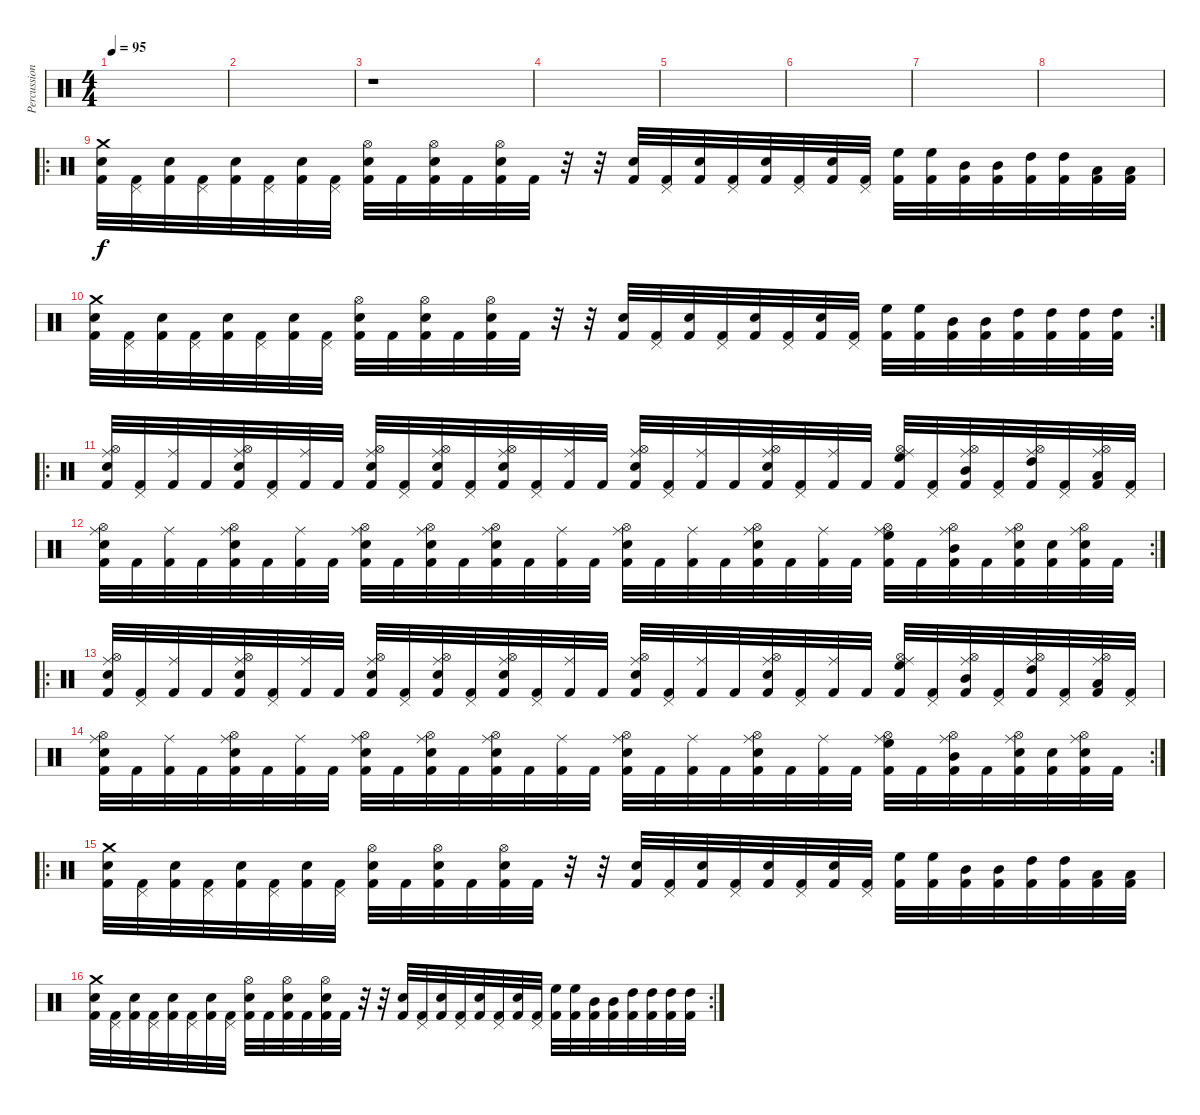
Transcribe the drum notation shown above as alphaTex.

\track ("Percussion" "Percussion") {instrument percussion}
\staff {score}
\articulation defaults
\ts (4 4)
\tempo 95
\clef neutral
\ks c
|
|
r.1 |
|
|
|
|
|
\ro
("Crash medium (hit)" "Electric Snare (hit)" "Kick (hit) 2").32 ("Pedal Hi-Hat (hit)" "Kick (hit) 2").32 ("Electric Snare (hit)" "Kick (hit) 2").32 ("Pedal Hi-Hat (hit)" "Kick (hit) 2").32 ("Electric Snare (hit)" "Kick (hit) 2").32 ("Pedal Hi-Hat (hit)" "Kick (hit) 2").32 ("Electric Snare (hit)" "Kick (hit) 2").32 ("Pedal Hi-Hat (hit)" "Kick (hit) 2").32 ("Electric Snare (hit)" "Hi-Hat (open)" "Kick (hit) 2").32 "Kick (hit) 2".32 ("Electric Snare (hit)" "Hi-Hat (open)" "Kick (hit) 2").32 "Kick (hit) 2".32 ("Electric Snare (hit)" "Hi-Hat (open)" "Kick (hit) 2").32 "Kick (hit) 2".32 r.32 r.32 ("Electric Snare (hit)" "Kick (hit) 2").32 ("Pedal Hi-Hat (hit)" "Kick (hit) 2").32 ("Electric Snare (hit)" "Kick (hit) 2").32 ("Pedal Hi-Hat (hit)" "Kick (hit) 2").32 ("Electric Snare (hit)" "Kick (hit) 2").32 ("Pedal Hi-Hat (hit)" "Kick (hit) 2").32 ("Electric Snare (hit)" "Kick (hit) 2").32 ("Pedal Hi-Hat (hit)" "Kick (hit) 2").32 ("High Floor Tom (hit)" "Kick (hit) 2").32 ("High Floor Tom (hit)" "Kick (hit) 2").32 ("Mid Tom (hit)" "Kick (hit) 2").32 ("Mid Tom (hit)" "Kick (hit) 2").32 ("High Tom (hit)" "Kick (hit) 2").32 ("High Tom (hit)" "Kick (hit) 2").32 ("Low Tom (hit)" "Kick (hit) 2").32 ("Low Tom (hit)" "Kick (hit) 2").32 |
\rc 2
("Crash medium (hit)" "Electric Snare (hit)" "Kick (hit) 2").32 ("Pedal Hi-Hat (hit)" "Kick (hit) 2").32 ("Electric Snare (hit)" "Kick (hit) 2").32 ("Pedal Hi-Hat (hit)" "Kick (hit) 2").32 ("Electric Snare (hit)" "Kick (hit) 2").32 ("Pedal Hi-Hat (hit)" "Kick (hit) 2").32 ("Electric Snare (hit)" "Kick (hit) 2").32 ("Pedal Hi-Hat (hit)" "Kick (hit) 2").32 ("Electric Snare (hit)" "Hi-Hat (open)" "Kick (hit) 2").32 "Kick (hit) 2".32 ("Electric Snare (hit)" "Hi-Hat (open)" "Kick (hit) 2").32 "Kick (hit) 2".32 ("Electric Snare (hit)" "Hi-Hat (open)" "Kick (hit) 2").32 "Kick (hit) 2".32 r.32 r.32 ("Electric Snare (hit)" "Kick (hit) 2").32 ("Pedal Hi-Hat (hit)" "Kick (hit) 2").32 ("Electric Snare (hit)" "Kick (hit) 2").32 ("Pedal Hi-Hat (hit)" "Kick (hit) 2").32 ("Electric Snare (hit)" "Kick (hit) 2").32 ("Pedal Hi-Hat (hit)" "Kick (hit) 2").32 ("Electric Snare (hit)" "Kick (hit) 2").32 ("Pedal Hi-Hat (hit)" "Kick (hit) 2").32 ("High Floor Tom (hit)" "Kick (hit) 2").32 ("High Floor Tom (hit)" "Kick (hit) 2").32 ("Mid Tom (hit)" "Kick (hit) 2").32 ("Mid Tom (hit)" "Kick (hit) 2").32 ("High Tom (hit)" "Kick (hit) 2").32 ("High Tom (hit)" "Kick (hit) 2").32 ("High Tom (hit)" "Kick (hit) 2").32 ("High Tom (hit)" "Kick (hit) 2").32 |
\ro
("Electric Snare (hit)" "Hi-Hat (open)" "Ride (middle)" "Kick (hit) 2").32 ("Pedal Hi-Hat (hit)" "Kick (hit) 2").32 ("Ride (middle)" "Kick (hit) 2").32 "Kick (hit) 2".32 ("Electric Snare (hit)" "Hi-Hat (open)" "Ride (middle)" "Kick (hit) 2").32 ("Pedal Hi-Hat (hit)" "Kick (hit) 2").32 ("Ride (middle)" "Kick (hit) 2").32 "Kick (hit) 2".32 ("Electric Snare (hit)" "Hi-Hat (open)" "Ride (middle)" "Kick (hit) 2").32 ("Pedal Hi-Hat (hit)" "Kick (hit) 2").32 ("Electric Snare (hit)" "Hi-Hat (open)" "Ride (middle)" "Kick (hit) 2").32 ("Pedal Hi-Hat (hit)" "Kick (hit) 2").32 ("Electric Snare (hit)" "Hi-Hat (open)" "Ride (middle)" "Kick (hit) 2").32 ("Pedal Hi-Hat (hit)" "Kick (hit) 2").32 ("Ride (middle)" "Kick (hit) 2").32 "Kick (hit) 2".32 ("Electric Snare (hit)" "Hi-Hat (open)" "Ride (middle)" "Kick (hit) 2").32 ("Pedal Hi-Hat (hit)" "Kick (hit) 2").32 ("Ride (middle)" "Kick (hit) 2").32 "Kick (hit) 2".32 ("Electric Snare (hit)" "Hi-Hat (open)" "Ride (middle)" "Kick (hit) 2").32 ("Pedal Hi-Hat (hit)" "Kick (hit) 2").32 ("Ride (middle)" "Kick (hit) 2").32 "Kick (hit) 2".32 ("High Floor Tom (hit)" "Hi-Hat (open)" "Ride (middle)" "Kick (hit) 2").32 ("Pedal Hi-Hat (hit)" "Kick (hit) 2").32 ("Mid Tom (hit)" "Hi-Hat (open)" "Ride (middle)" "Kick (hit) 2").32 ("Pedal Hi-Hat (hit)" "Kick (hit) 2").32 ("High Tom (hit)" "Hi-Hat (open)" "Ride (middle)" "Kick (hit) 2").32 ("Pedal Hi-Hat (hit)" "Kick (hit) 2").32 ("Low Tom (hit)" "Hi-Hat (open)" "Ride (middle)" "Kick (hit) 2").32 ("Pedal Hi-Hat (hit)" "Kick (hit) 2").32 |
\rc 2
("Electric Snare (hit)" "Hi-Hat (open)" "Ride (middle)" "Kick (hit) 2").32 "Kick (hit) 2".32 ("Ride (middle)" "Kick (hit) 2").32 "Kick (hit) 2".32 ("Electric Snare (hit)" "Hi-Hat (open)" "Ride (middle)" "Kick (hit) 2").32 "Kick (hit) 2".32 ("Ride (middle)" "Kick (hit) 2").32 "Kick (hit) 2".32 ("Electric Snare (hit)" "Hi-Hat (open)" "Ride (middle)" "Kick (hit) 2").32 "Kick (hit) 2".32 ("Electric Snare (hit)" "Hi-Hat (open)" "Ride (middle)" "Kick (hit) 2").32 "Kick (hit) 2".32 ("Electric Snare (hit)" "Hi-Hat (open)" "Ride (middle)" "Kick (hit) 2").32 "Kick (hit) 2".32 ("Ride (middle)" "Kick (hit) 2").32 "Kick (hit) 2".32 ("Electric Snare (hit)" "Hi-Hat (open)" "Ride (middle)" "Kick (hit) 2").32 "Kick (hit) 2".32 ("Ride (middle)" "Kick (hit) 2").32 "Kick (hit) 2".32 ("Electric Snare (hit)" "Hi-Hat (open)" "Ride (middle)" "Kick (hit) 2").32 "Kick (hit) 2".32 ("Ride (middle)" "Kick (hit) 2").32 "Kick (hit) 2".32 ("High Floor Tom (hit)" "Hi-Hat (open)" "Ride (middle)" "Kick (hit) 2").32 "Kick (hit) 2".32 ("Mid Tom (hit)" "Hi-Hat (open)" "Ride (middle)" "Kick (hit) 2").32 "Kick (hit) 2".32 ("Snare (hit) 2" "Hi-Hat (open)" "Ride (middle)" "Kick (hit) 2").32 ("Snare (hit) 2" "Kick (hit) 2").32 ("Snare (hit) 2" "Hi-Hat (open)" "Ride (middle)" "Kick (hit) 2").32 "Kick (hit) 2".32 |
\ro
("Electric Snare (hit)" "Hi-Hat (open)" "Ride (middle)" "Kick (hit) 2").32 ("Pedal Hi-Hat (hit)" "Kick (hit) 2").32 ("Ride (middle)" "Kick (hit) 2").32 "Kick (hit) 2".32 ("Electric Snare (hit)" "Hi-Hat (open)" "Ride (middle)" "Kick (hit) 2").32 ("Pedal Hi-Hat (hit)" "Kick (hit) 2").32 ("Ride (middle)" "Kick (hit) 2").32 "Kick (hit) 2".32 ("Electric Snare (hit)" "Hi-Hat (open)" "Ride (middle)" "Kick (hit) 2").32 ("Pedal Hi-Hat (hit)" "Kick (hit) 2").32 ("Electric Snare (hit)" "Hi-Hat (open)" "Ride (middle)" "Kick (hit) 2").32 ("Pedal Hi-Hat (hit)" "Kick (hit) 2").32 ("Electric Snare (hit)" "Hi-Hat (open)" "Ride (middle)" "Kick (hit) 2").32 ("Pedal Hi-Hat (hit)" "Kick (hit) 2").32 ("Ride (middle)" "Kick (hit) 2").32 "Kick (hit) 2".32 ("Electric Snare (hit)" "Hi-Hat (open)" "Ride (middle)" "Kick (hit) 2").32 ("Pedal Hi-Hat (hit)" "Kick (hit) 2").32 ("Ride (middle)" "Kick (hit) 2").32 "Kick (hit) 2".32 ("Electric Snare (hit)" "Hi-Hat (open)" "Ride (middle)" "Kick (hit) 2").32 ("Pedal Hi-Hat (hit)" "Kick (hit) 2").32 ("Ride (middle)" "Kick (hit) 2").32 "Kick (hit) 2".32 ("High Floor Tom (hit)" "Hi-Hat (open)" "Ride (middle)" "Kick (hit) 2").32 ("Pedal Hi-Hat (hit)" "Kick (hit) 2").32 ("Mid Tom (hit)" "Hi-Hat (open)" "Ride (middle)" "Kick (hit) 2").32 ("Pedal Hi-Hat (hit)" "Kick (hit) 2").32 ("High Tom (hit)" "Hi-Hat (open)" "Ride (middle)" "Kick (hit) 2").32 ("Pedal Hi-Hat (hit)" "Kick (hit) 2").32 ("Low Tom (hit)" "Hi-Hat (open)" "Ride (middle)" "Kick (hit) 2").32 ("Pedal Hi-Hat (hit)" "Kick (hit) 2").32 |
\rc 2
("Electric Snare (hit)" "Hi-Hat (open)" "Ride (middle)" "Kick (hit) 2").32 "Kick (hit) 2".32 ("Ride (middle)" "Kick (hit) 2").32 "Kick (hit) 2".32 ("Electric Snare (hit)" "Hi-Hat (open)" "Ride (middle)" "Kick (hit) 2").32 "Kick (hit) 2".32 ("Ride (middle)" "Kick (hit) 2").32 "Kick (hit) 2".32 ("Electric Snare (hit)" "Hi-Hat (open)" "Ride (middle)" "Kick (hit) 2").32 "Kick (hit) 2".32 ("Electric Snare (hit)" "Hi-Hat (open)" "Ride (middle)" "Kick (hit) 2").32 "Kick (hit) 2".32 ("Electric Snare (hit)" "Hi-Hat (open)" "Ride (middle)" "Kick (hit) 2").32 "Kick (hit) 2".32 ("Ride (middle)" "Kick (hit) 2").32 "Kick (hit) 2".32 ("Electric Snare (hit)" "Hi-Hat (open)" "Ride (middle)" "Kick (hit) 2").32 "Kick (hit) 2".32 ("Ride (middle)" "Kick (hit) 2").32 "Kick (hit) 2".32 ("Electric Snare (hit)" "Hi-Hat (open)" "Ride (middle)" "Kick (hit) 2").32 "Kick (hit) 2".32 ("Ride (middle)" "Kick (hit) 2").32 "Kick (hit) 2".32 ("High Floor Tom (hit)" "Hi-Hat (open)" "Ride (middle)" "Kick (hit) 2").32 "Kick (hit) 2".32 ("Mid Tom (hit)" "Hi-Hat (open)" "Ride (middle)" "Kick (hit) 2").32 "Kick (hit) 2".32 ("Snare (hit) 2" "Hi-Hat (open)" "Ride (middle)" "Kick (hit) 2").32 ("Snare (hit) 2" "Kick (hit) 2").32 ("Snare (hit) 2" "Hi-Hat (open)" "Ride (middle)" "Kick (hit) 2").32 "Kick (hit) 2".32 |
\ro
("Crash medium (hit)" "Electric Snare (hit)" "Kick (hit) 2").32 ("Pedal Hi-Hat (hit)" "Kick (hit) 2").32 ("Electric Snare (hit)" "Kick (hit) 2").32 ("Pedal Hi-Hat (hit)" "Kick (hit) 2").32 ("Electric Snare (hit)" "Kick (hit) 2").32 ("Pedal Hi-Hat (hit)" "Kick (hit) 2").32 ("Electric Snare (hit)" "Kick (hit) 2").32 ("Pedal Hi-Hat (hit)" "Kick (hit) 2").32 ("Electric Snare (hit)" "Hi-Hat (open)" "Kick (hit) 2").32 "Kick (hit) 2".32 ("Electric Snare (hit)" "Hi-Hat (open)" "Kick (hit) 2").32 "Kick (hit) 2".32 ("Electric Snare (hit)" "Hi-Hat (open)" "Kick (hit) 2").32 "Kick (hit) 2".32 r.32 r.32 ("Electric Snare (hit)" "Kick (hit) 2").32 ("Pedal Hi-Hat (hit)" "Kick (hit) 2").32 ("Electric Snare (hit)" "Kick (hit) 2").32 ("Pedal Hi-Hat (hit)" "Kick (hit) 2").32 ("Electric Snare (hit)" "Kick (hit) 2").32 ("Pedal Hi-Hat (hit)" "Kick (hit) 2").32 ("Electric Snare (hit)" "Kick (hit) 2").32 ("Pedal Hi-Hat (hit)" "Kick (hit) 2").32 ("High Floor Tom (hit)" "Kick (hit) 2").32 ("High Floor Tom (hit)" "Kick (hit) 2").32 ("Mid Tom (hit)" "Kick (hit) 2").32 ("Mid Tom (hit)" "Kick (hit) 2").32 ("High Tom (hit)" "Kick (hit) 2").32 ("High Tom (hit)" "Kick (hit) 2").32 ("Low Tom (hit)" "Kick (hit) 2").32 ("Low Tom (hit)" "Kick (hit) 2").32 |
\rc 2
("Crash medium (hit)" "Electric Snare (hit)" "Kick (hit) 2").32 ("Pedal Hi-Hat (hit)" "Kick (hit) 2").32 ("Electric Snare (hit)" "Kick (hit) 2").32 ("Pedal Hi-Hat (hit)" "Kick (hit) 2").32 ("Electric Snare (hit)" "Kick (hit) 2").32 ("Pedal Hi-Hat (hit)" "Kick (hit) 2").32 ("Electric Snare (hit)" "Kick (hit) 2").32 ("Pedal Hi-Hat (hit)" "Kick (hit) 2").32 ("Electric Snare (hit)" "Hi-Hat (open)" "Kick (hit) 2").32 "Kick (hit) 2".32 ("Electric Snare (hit)" "Hi-Hat (open)" "Kick (hit) 2").32 "Kick (hit) 2".32 ("Electric Snare (hit)" "Hi-Hat (open)" "Kick (hit) 2").32 "Kick (hit) 2".32 r.32 r.32 ("Electric Snare (hit)" "Kick (hit) 2").32 ("Pedal Hi-Hat (hit)" "Kick (hit) 2").32 ("Electric Snare (hit)" "Kick (hit) 2").32 ("Pedal Hi-Hat (hit)" "Kick (hit) 2").32 ("Electric Snare (hit)" "Kick (hit) 2").32 ("Pedal Hi-Hat (hit)" "Kick (hit) 2").32 ("Electric Snare (hit)" "Kick (hit) 2").32 ("Pedal Hi-Hat (hit)" "Kick (hit) 2").32 ("High Floor Tom (hit)" "Kick (hit) 2").32 ("High Floor Tom (hit)" "Kick (hit) 2").32 ("Mid Tom (hit)" "Kick (hit) 2").32 ("Mid Tom (hit)" "Kick (hit) 2").32 ("High Tom (hit)" "Kick (hit) 2").32 ("High Tom (hit)" "Kick (hit) 2").32 ("High Tom (hit)" "Kick (hit) 2").32 ("High Tom (hit)" "Kick (hit) 2").32
